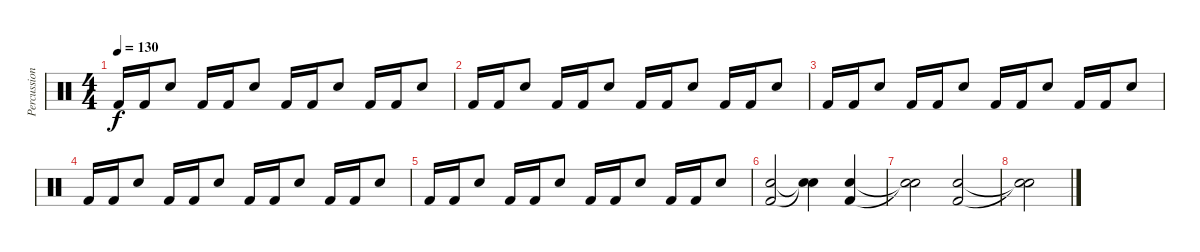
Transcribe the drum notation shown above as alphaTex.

\track ("Percussion" "Percussion") {instrument percussion}
\staff {score}
\articulation defaults
\ts (4 4)
\tempo 130
\clef neutral
\ks c "Kick (hit) 2".16{dy f} "Kick (hit) 2".16 "Snare (hit) 2".8 "Kick (hit) 2".16 "Kick (hit) 2".16 "Snare (hit) 2".8 "Kick (hit) 2".16 "Kick (hit) 2".16 "Snare (hit) 2".8 "Kick (hit) 2".16 "Kick (hit) 2".16 "Snare (hit) 2".8
|
"Kick (hit) 2".16 "Kick (hit) 2".16 "Snare (hit) 2".8 "Kick (hit) 2".16 "Kick (hit) 2".16 "Snare (hit) 2".8 "Kick (hit) 2".16 "Kick (hit) 2".16 "Snare (hit) 2".8 "Kick (hit) 2".16 "Kick (hit) 2".16 "Snare (hit) 2".8 |
"Kick (hit) 2".16 "Kick (hit) 2".16 "Snare (hit) 2".8 "Kick (hit) 2".16 "Kick (hit) 2".16 "Snare (hit) 2".8 "Kick (hit) 2".16 "Kick (hit) 2".16 "Snare (hit) 2".8 "Kick (hit) 2".16 "Kick (hit) 2".16 "Snare (hit) 2".8 |
"Kick (hit) 2".16 "Kick (hit) 2".16 "Snare (hit) 2".8 "Kick (hit) 2".16 "Kick (hit) 2".16 "Snare (hit) 2".8 "Kick (hit) 2".16 "Kick (hit) 2".16 "Snare (hit) 2".8 "Kick (hit) 2".16 "Kick (hit) 2".16 "Snare (hit) 2".8 |
"Kick (hit) 2".16 "Kick (hit) 2".16 "Snare (hit) 2".8 "Kick (hit) 2".16 "Kick (hit) 2".16 "Snare (hit) 2".8 "Kick (hit) 2".16 "Kick (hit) 2".16 "Snare (hit) 2".8 "Kick (hit) 2".16 "Kick (hit) 2".16 "Snare (hit) 2".8 |
("Snare (hit) 2" "Kick (hit) 2").2 ("Snare (hit)"{t} "Snare (hit)"{t}).4 ("Snare (hit) 2" "Kick (hit) 2").4 |
("Snare (hit)"{t} "Snare (hit)"{t}).2 ("Snare (hit) 2" "Kick (hit) 2").2 |
("Snare (hit)"{t} "Snare (hit)"{t}).2
